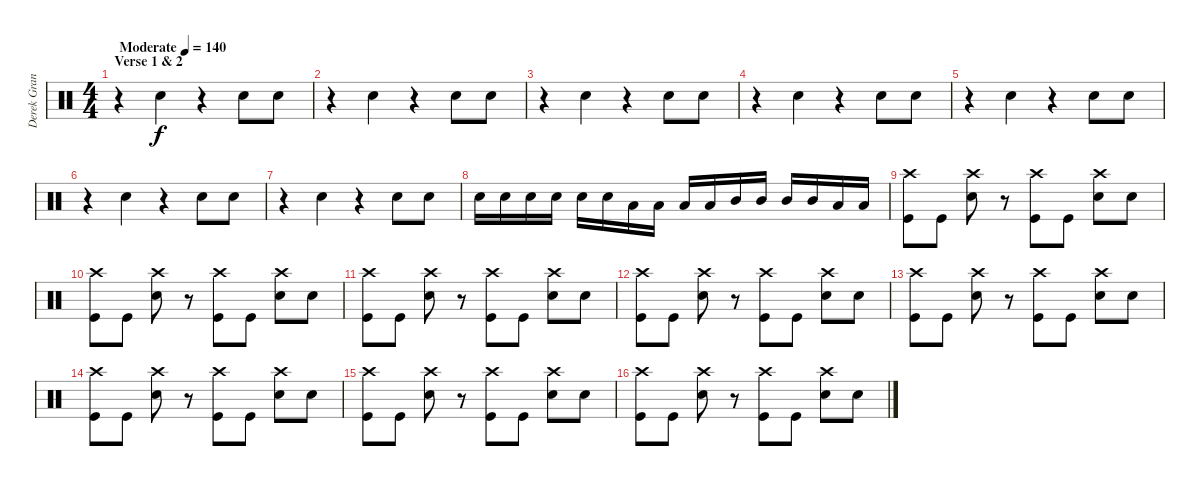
\track ("Derek Grant" "Derek Gran") {instrument percussion}
\staff {score}
\articulation defaults
\ts (4 4)
\section ("" "Verse 1 & 2")
\tempo (140 "Moderate")
\clef neutral
\ks c
r.4{dy f} "Hand Clap (hit)".4 r.4 "Hand Clap (hit)".8 "Hand Clap (hit)".8 |
r.4 "Hand Clap (hit)".4 r.4 "Hand Clap (hit)".8 "Hand Clap (hit)".8 |
r.4 "Hand Clap (hit)".4 r.4 "Hand Clap (hit)".8 "Hand Clap (hit)".8 |
r.4 "Hand Clap (hit)".4 r.4 "Hand Clap (hit)".8 "Hand Clap (hit)".8 |
r.4 "Hand Clap (hit)".4 r.4 "Hand Clap (hit)".8 "Hand Clap (hit)".8 |
r.4 "Hand Clap (hit)".4 r.4 "Hand Clap (hit)".8 "Hand Clap (hit)".8 |
r.4 "Hand Clap (hit)".4 r.4 "Hand Clap (hit)".8 "Hand Clap (hit)".8 |
"Snare (hit) 2".16 "Snare (hit) 2".16 "Snare (hit) 2".16 "Snare (hit) 2".16 "Snare (hit) 2".16 "Snare (hit) 2".16 "Low Tom (hit)".16 "Low Tom (hit)".16 "Low Tom (hit)".16 "Low Tom (hit)".16 "Mid Tom (hit)".16 "Mid Tom (hit)".16 "Mid Tom (hit)".16 "Mid Tom (hit)".16 "Low Floor Tom (hit)".16 "Low Floor Tom (hit)".16 |
("Crash high (hit)" "Kick (hit)").8 "Kick (hit)".8 ("Crash high (hit)" "Snare (hit) 2").8 r.8 ("Crash high (hit)" "Kick (hit)").8 "Kick (hit)".8 ("Crash high (hit)" "Snare (hit) 2").8 "Snare (hit) 2".8 |
("Crash high (hit)" "Kick (hit)").8 "Kick (hit)".8 ("Crash high (hit)" "Snare (hit) 2").8 r.8 ("Crash high (hit)" "Kick (hit)").8 "Kick (hit)".8 ("Crash high (hit)" "Snare (hit) 2").8 "Snare (hit) 2".8 |
("Crash high (hit)" "Kick (hit)").8 "Kick (hit)".8 ("Crash high (hit)" "Snare (hit) 2").8 r.8 ("Crash high (hit)" "Kick (hit)").8 "Kick (hit)".8 ("Crash high (hit)" "Snare (hit) 2").8 "Snare (hit) 2".8 |
("Crash high (hit)" "Kick (hit)").8 "Kick (hit)".8 ("Crash high (hit)" "Snare (hit) 2").8 r.8 ("Crash high (hit)" "Kick (hit)").8 "Kick (hit)".8 ("Crash high (hit)" "Snare (hit) 2").8 "Snare (hit) 2".8 |
("Crash high (hit)" "Kick (hit)").8 "Kick (hit)".8 ("Crash high (hit)" "Snare (hit) 2").8 r.8 ("Crash high (hit)" "Kick (hit)").8 "Kick (hit)".8 ("Crash high (hit)" "Snare (hit) 2").8 "Snare (hit) 2".8 |
("Crash high (hit)" "Kick (hit)").8 "Kick (hit)".8 ("Crash high (hit)" "Snare (hit) 2").8 r.8 ("Crash high (hit)" "Kick (hit)").8 "Kick (hit)".8 ("Crash high (hit)" "Snare (hit) 2").8 "Snare (hit) 2".8 |
("Crash high (hit)" "Kick (hit)").8 "Kick (hit)".8 ("Crash high (hit)" "Snare (hit) 2").8 r.8 ("Crash high (hit)" "Kick (hit)").8 "Kick (hit)".8 ("Crash high (hit)" "Snare (hit) 2").8 "Snare (hit) 2".8 |
("Crash high (hit)" "Kick (hit)").8 "Kick (hit)".8 ("Crash high (hit)" "Snare (hit) 2").8 r.8 ("Crash high (hit)" "Kick (hit)").8 "Kick (hit)".8 ("Crash high (hit)" "Snare (hit) 2").8 "Snare (hit) 2".8
